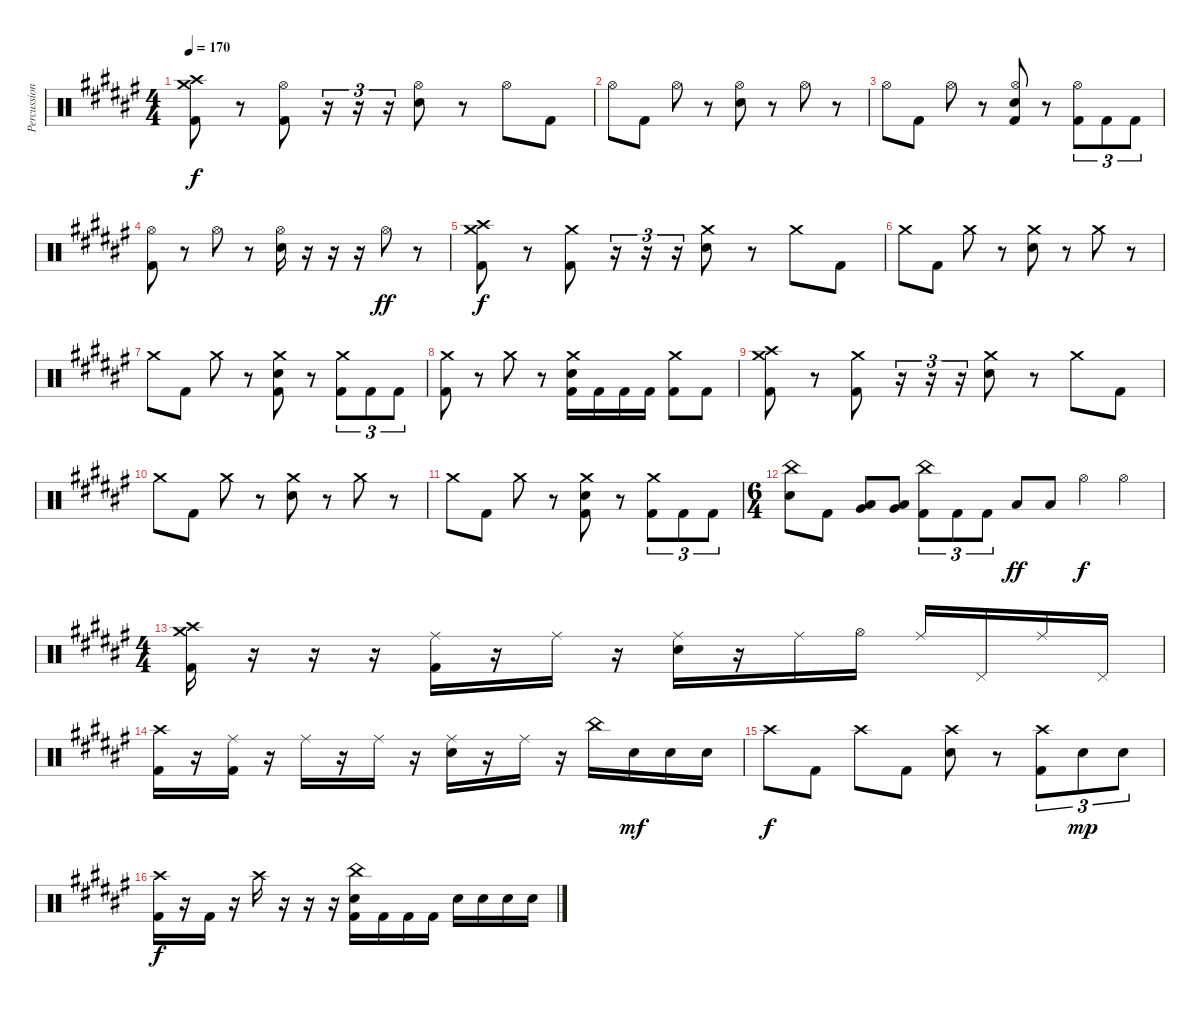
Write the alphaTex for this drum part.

\track ("Percussion" "Percussion") {instrument percussion}
\staff {score}
\articulation defaults
\ts (4 4)
\tempo 170
\clef neutral
\ks d#minor
("Crash medium (hit)" "Crash high (hit)" "Kick (hit) 2").8{dy f} r.8 ("Hi-Hat (open)" "Kick (hit) 2").8 r.16{tu (3 2)} r.16{tu (3 2)} r.16{tu (3 2)} ("Hi-Hat (open)" "Electric Snare (hit)").8 r.8 "Hi-Hat (open)".8 "Kick (hit) 2".8 |
"Hi-Hat (open)".8 "Kick (hit) 2".8 "Hi-Hat (open)".8 r.8 ("Hi-Hat (open)" "Electric Snare (hit)").8 r.8 "Hi-Hat (open)".8 r.8 |
"Hi-Hat (open)".8 "Kick (hit) 2".8 "Hi-Hat (open)".8 r.8 ("Hi-Hat (open)" "Electric Snare (hit)" "Kick (hit) 2").8 r.8 ("Hi-Hat (open)" "Kick (hit) 2").8{tu (3 2)} "Kick (hit) 2".8{tu (3 2)} "Kick (hit) 2".8{tu (3 2)} |
("Hi-Hat (open)" "Kick (hit) 2").8 r.8 "Hi-Hat (open)".8 r.8 ("Hi-Hat (open)" "Electric Snare (hit)").16 r.16 r.16 r.16 "Hi-Hat (open)".8{dy ff} r.8 |
("Crash high (hit)" "Crash medium (hit)" "Kick (hit) 2").8{dy f} r.8 ("Crash medium (hit)" "Kick (hit) 2").8 r.16{tu (3 2)} r.16{tu (3 2)} r.16{tu (3 2)} ("Crash medium (hit)" "Electric Snare (hit)").8 r.8 "Crash medium (hit)".8 "Kick (hit) 2".8 |
"Crash medium (hit)".8 "Kick (hit) 2".8 "Crash medium (hit)".8 r.8 ("Crash medium (hit)" "Electric Snare (hit)").8 r.8 "Crash medium (hit)".8 r.8 |
"Crash medium (hit)".8 "Kick (hit) 2".8 "Crash medium (hit)".8 r.8 ("Crash medium (hit)" "Electric Snare (hit)" "Kick (hit) 2").8 r.8 ("Crash medium (hit)" "Kick (hit) 2").8{tu (3 2)} "Kick (hit) 2".8{tu (3 2)} "Kick (hit) 2".8{tu (3 2)} |
("Crash medium (hit)" "Kick (hit) 2").8 r.8 "Crash medium (hit)".8 r.8 ("Crash medium (hit)" "Electric Snare (hit)" "Kick (hit) 2").16 "Kick (hit) 2".16 "Kick (hit) 2".16 "Kick (hit) 2".16 ("Crash medium (hit)" "Kick (hit) 2").8 "Kick (hit) 2".8 |
("Crash high (hit)" "Crash medium (hit)" "Kick (hit) 2").8 r.8 ("Crash medium (hit)" "Kick (hit) 2").8 r.16{tu (3 2)} r.16{tu (3 2)} r.16{tu (3 2)} ("Crash medium (hit)" "Electric Snare (hit)").8 r.8 "Crash medium (hit)".8 "Kick (hit) 2".8 |
"Crash medium (hit)".8 "Kick (hit) 2".8 "Crash medium (hit)".8 r.8 ("Crash medium (hit)" "Electric Snare (hit)").8 r.8 "Crash medium (hit)".8 r.8 |
"Crash medium (hit)".8 "Kick (hit) 2".8 "Crash medium (hit)".8 r.8 ("Crash medium (hit)" "Electric Snare (hit)" "Kick (hit) 2").8 r.8 ("Crash medium (hit)" "Kick (hit) 2").8{tu (3 2)} "Kick (hit) 2".8{tu (3 2)} "Kick (hit) 2".8{tu (3 2)} |
\ts (6 4)
("China (hit)" "Electric Snare (hit)").8 "Kick (hit) 2".8 ("Low Floor Tom (hit)" "Very Low Tom (hit)").8 ("Low Floor Tom (hit)" "Very Low Tom (hit)").8 ("China (hit)" "Kick (hit) 2").8{tu (3 2)} "Kick (hit) 2".8{tu (3 2)} "Kick (hit) 2".8{tu (3 2)} "Low Floor Tom (hit)".8{dy ff} "Low Floor Tom (hit)".8 "Hi-Hat (open)".4{dy f} "Hi-Hat (open)".4 |
\ts (4 4)
("Crash high (hit)" "Crash medium (hit)" "Kick (hit) 2").16 r.16 r.16 r.16 ("Ride (middle)" "Kick (hit) 2").16 r.16 "Ride (middle)".16 r.16 ("Ride (middle)" "Electric Snare (hit)").16 r.16 "Ride (middle)".16 "Hi-Hat (open)".16 "Ride (middle)".16 "Pedal Hi-Hat (hit)".16 "Ride (middle)".16 "Pedal Hi-Hat (hit)".16 |
("Crash high (hit)" "Kick (hit) 2").16 r.16 ("Ride (middle)" "Kick (hit) 2").16 r.16 "Ride (middle)".16 r.16 "Ride (middle)".16 r.16 ("Ride (middle)" "Electric Snare (hit)").16 r.16 "Ride (middle)".16 r.16 "China (hit)".16 "Electric Snare (hit)".16{dy mf} "Electric Snare (hit)".16 "Electric Snare (hit)".16 |
"Crash high (hit)".8{dy f} "Kick (hit) 2".8 "Crash high (hit)".8 "Kick (hit) 2".8 ("Crash high (hit)" "Electric Snare (hit)").8 r.8 ("Crash high (hit)" "Kick (hit) 2").8{tu (3 2)} "Electric Snare (hit)".8{tu (3 2) dy mp} "Electric Snare (hit)".8{tu (3 2)} |
("Crash high (hit)" "Kick (hit) 2").16{dy f} r.16 "Kick (hit) 2".16 r.16 "Crash high (hit)".16 r.16 r.16 r.16 ("China (hit)" "Electric Snare (hit)" "Kick (hit) 2").16 "Kick (hit) 2".16 "Kick (hit) 2".16 "Kick (hit) 2".16 "Electric Snare (hit)".16 "Electric Snare (hit)".16 "Electric Snare (hit)".16 "Electric Snare (hit)".16
